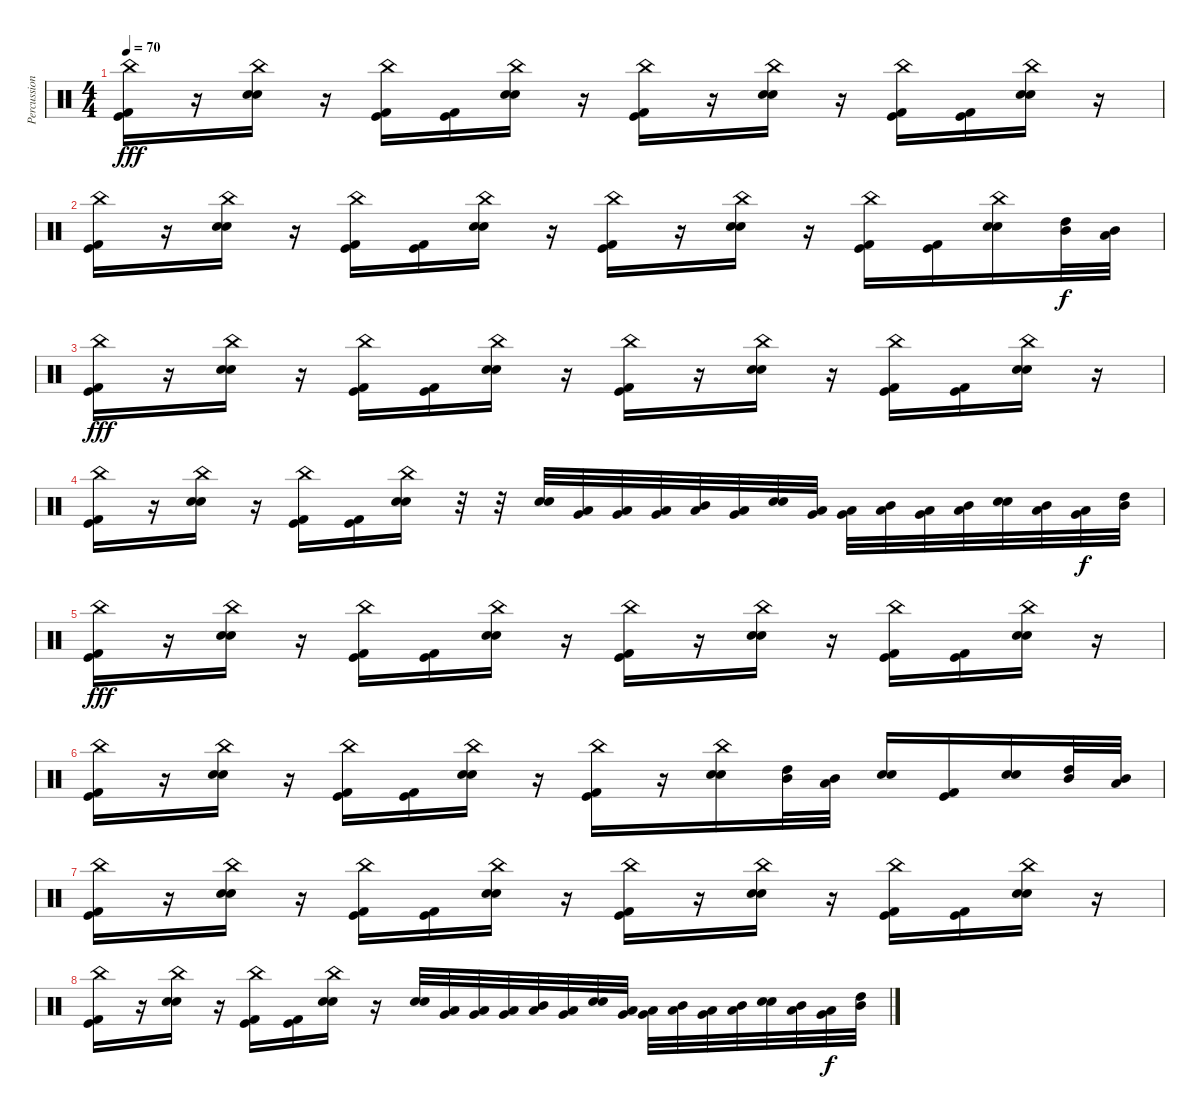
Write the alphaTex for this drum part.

\track ("Percussion" "Percussion") {instrument percussion}
\staff {score}
\articulation defaults
\ts (4 4)
\tempo 70
\clef neutral
\ks c
("Kick (hit)" "China (hit)" "Kick (hit) 2").16{dy fff} r.16 ("China (hit)" "Snare (hit) 2" "Electric Snare (hit)").16 r.16 ("Kick (hit)" "China (hit)" "Kick (hit) 2").16 ("Kick (hit)" "Kick (hit) 2").16 ("China (hit)" "Snare (hit) 2" "Electric Snare (hit)").16 r.16 ("Kick (hit)" "China (hit)" "Kick (hit) 2").16 r.16 ("China (hit)" "Snare (hit) 2" "Electric Snare (hit)").16 r.16 ("Kick (hit)" "China (hit)" "Kick (hit) 2").16 ("Kick (hit)" "Kick (hit) 2").16 ("China (hit)" "Snare (hit) 2" "Electric Snare (hit)").16 r.16 |
("Kick (hit)" "China (hit)" "Kick (hit) 2").16 r.16 ("China (hit)" "Snare (hit) 2" "Electric Snare (hit)").16 r.16 ("Kick (hit)" "China (hit)" "Kick (hit) 2").16 ("Kick (hit)" "Kick (hit) 2").16 ("China (hit)" "Snare (hit) 2" "Electric Snare (hit)").16 r.16 ("Kick (hit)" "China (hit)" "Kick (hit) 2").16 r.16 ("China (hit)" "Snare (hit) 2" "Electric Snare (hit)").16 r.16 ("Kick (hit)" "China (hit)" "Kick (hit) 2").16 ("Kick (hit)" "Kick (hit) 2").16 ("China (hit)" "Snare (hit) 2" "Electric Snare (hit)").16 ("High Tom (hit)" "Mid Tom (hit)").32{dy f} ("Mid Tom (hit)" "Low Tom (hit)").32 |
("Kick (hit)" "China (hit)" "Kick (hit) 2").16{dy fff} r.16 ("China (hit)" "Snare (hit) 2" "Electric Snare (hit)").16 r.16 ("Kick (hit)" "China (hit)" "Kick (hit) 2").16 ("Kick (hit)" "Kick (hit) 2").16 ("China (hit)" "Snare (hit) 2" "Electric Snare (hit)").16 r.16 ("Kick (hit)" "China (hit)" "Kick (hit) 2").16 r.16 ("China (hit)" "Snare (hit) 2" "Electric Snare (hit)").16 r.16 ("Kick (hit)" "China (hit)" "Kick (hit) 2").16 ("Kick (hit)" "Kick (hit) 2").16 ("China (hit)" "Snare (hit) 2" "Electric Snare (hit)").16 r.16 |
("Kick (hit)" "China (hit)" "Kick (hit) 2").16 r.16 ("China (hit)" "Snare (hit) 2" "Electric Snare (hit)").16 r.16 ("Kick (hit)" "China (hit)" "Kick (hit) 2").16 ("Kick (hit)" "Kick (hit) 2").16 ("China (hit)" "Snare (hit) 2" "Electric Snare (hit)").16 r.32 r.32 ("Snare (hit) 2" "Electric Snare (hit)").32 ("Low Tom (hit)" "Very Low Tom (hit)").32 ("Very Low Tom (hit)" "Low Floor Tom (hit)").32 ("Low Tom (hit)" "Very Low Tom (hit)").32 ("Mid Tom (hit)" "Low Tom (hit)").32 ("Low Tom (hit)" "Very Low Tom (hit)").32 ("Snare (hit) 2" "Electric Snare (hit)").32 ("Very Low Tom (hit)" "Low Floor Tom (hit)").32 ("Low Tom (hit)" "Very Low Tom (hit)").32 ("Mid Tom (hit)" "Low Tom (hit)").32 ("Low Tom (hit)" "Very Low Tom (hit)").32 ("Mid Tom (hit)" "Low Tom (hit)").32 ("Snare (hit) 2" "Electric Snare (hit)").32 ("Mid Tom (hit)" "Low Tom (hit)").32 ("Low Tom (hit)" "Very Low Tom (hit)").32{dy f} ("High Tom (hit)" "Mid Tom (hit)").32 |
("Kick (hit)" "China (hit)" "Kick (hit) 2").16{dy fff} r.16 ("China (hit)" "Snare (hit) 2" "Electric Snare (hit)").16 r.16 ("Kick (hit)" "China (hit)" "Kick (hit) 2").16 ("Kick (hit)" "Kick (hit) 2").16 ("China (hit)" "Snare (hit) 2" "Electric Snare (hit)").16 r.16 ("Kick (hit)" "China (hit)" "Kick (hit) 2").16 r.16 ("China (hit)" "Snare (hit) 2" "Electric Snare (hit)").16 r.16 ("Kick (hit)" "China (hit)" "Kick (hit) 2").16 ("Kick (hit)" "Kick (hit) 2").16 ("China (hit)" "Snare (hit) 2" "Electric Snare (hit)").16 r.16 |
("Kick (hit)" "China (hit)" "Kick (hit) 2").16 r.16 ("China (hit)" "Snare (hit) 2" "Electric Snare (hit)").16 r.16 ("Kick (hit)" "China (hit)" "Kick (hit) 2").16 ("Kick (hit)" "Kick (hit) 2").16 ("China (hit)" "Snare (hit) 2" "Electric Snare (hit)").16 r.16 ("Kick (hit)" "China (hit)" "Kick (hit) 2").16 r.16 ("China (hit)" "Snare (hit) 2" "Electric Snare (hit)").16 ("High Tom (hit)" "Mid Tom (hit)").32 ("Mid Tom (hit)" "Low Tom (hit)").32 ("Snare (hit) 2" "Electric Snare (hit)").16 ("Kick (hit)" "Kick (hit) 2").16 ("Snare (hit) 2" "Electric Snare (hit)").16 ("High Tom (hit)" "Mid Tom (hit)").32 ("Mid Tom (hit)" "Low Tom (hit)").32 |
("Kick (hit)" "China (hit)" "Kick (hit) 2").16 r.16 ("China (hit)" "Snare (hit) 2" "Electric Snare (hit)").16 r.16 ("Kick (hit)" "China (hit)" "Kick (hit) 2").16 ("Kick (hit)" "Kick (hit) 2").16 ("China (hit)" "Snare (hit) 2" "Electric Snare (hit)").16 r.16 ("Kick (hit)" "China (hit)" "Kick (hit) 2").16 r.16 ("China (hit)" "Snare (hit) 2" "Electric Snare (hit)").16 r.16 ("Kick (hit)" "China (hit)" "Kick (hit) 2").16 ("Kick (hit)" "Kick (hit) 2").16 ("China (hit)" "Snare (hit) 2" "Electric Snare (hit)").16 r.16 |
("Kick (hit)" "China (hit)" "Kick (hit) 2").16 r.16 ("China (hit)" "Snare (hit) 2" "Electric Snare (hit)").16 r.16 ("Kick (hit)" "China (hit)" "Kick (hit) 2").16 ("Kick (hit)" "Kick (hit) 2").16 ("China (hit)" "Snare (hit) 2" "Electric Snare (hit)").16 r.16 ("Snare (hit) 2" "Electric Snare (hit)").32 ("Low Tom (hit)" "Very Low Tom (hit)").32 ("Very Low Tom (hit)" "Low Floor Tom (hit)").32 ("Low Tom (hit)" "Very Low Tom (hit)").32 ("Mid Tom (hit)" "Low Tom (hit)").32 ("Low Tom (hit)" "Very Low Tom (hit)").32 ("Snare (hit) 2" "Electric Snare (hit)").32 ("Very Low Tom (hit)" "Low Floor Tom (hit)").32 ("Low Tom (hit)" "Very Low Tom (hit)").32 ("Mid Tom (hit)" "Low Tom (hit)").32 ("Low Tom (hit)" "Very Low Tom (hit)").32 ("Mid Tom (hit)" "Low Tom (hit)").32 ("Snare (hit) 2" "Electric Snare (hit)").32 ("Mid Tom (hit)" "Low Tom (hit)").32 ("Low Tom (hit)" "Very Low Tom (hit)").32{dy f} ("High Tom (hit)" "Mid Tom (hit)").32
